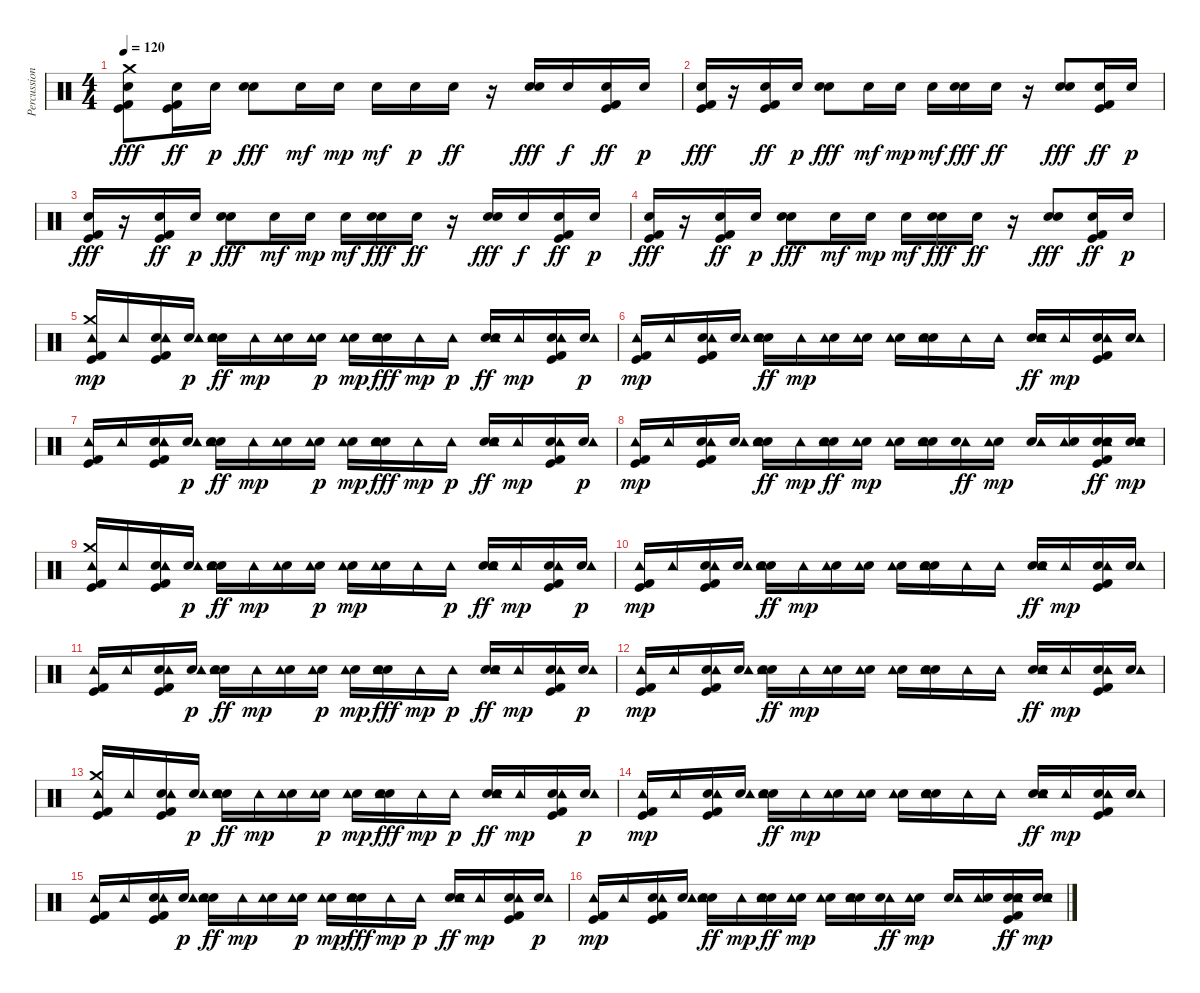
\track ("Percussions" "Percussion") {instrument percussion}
\staff {score}
\articulation defaults
\ts (4 4)
\tempo 120
\clef neutral
\ks c
("Kick (hit) 2" "Electric Snare (hit)" "Kick (hit)" "Crash medium (hit)").8{dy fff} ("Kick (hit) 2" "Electric Snare (hit)" "Kick (hit)").16{dy ff} "Electric Snare (hit)".16{dy p} ("Snare (hit) 2" "Electric Snare (hit)").8{dy fff} "Electric Snare (hit)".16{dy mf} "Electric Snare (hit)".16{dy mp} "Electric Snare (hit)".16{dy mf} "Electric Snare (hit)".16{dy p} "Electric Snare (hit)".16{dy ff} r.16 ("Snare (hit) 2" "Electric Snare (hit)").16{dy fff} "Electric Snare (hit)".16{dy f} ("Kick (hit)" "Electric Snare (hit)" "Kick (hit) 2").16{dy ff} "Electric Snare (hit)".16{dy p} |
("Electric Snare (hit)" "Kick (hit) 2" "Kick (hit)").16{dy fff} r.16 ("Electric Snare (hit)" "Kick (hit) 2" "Kick (hit)").16{dy ff} "Electric Snare (hit)".16{dy p} ("Snare (hit) 2" "Electric Snare (hit)").8{dy fff} "Electric Snare (hit)".16{dy mf} "Electric Snare (hit)".16{dy mp} "Electric Snare (hit)".16{dy mf} ("Electric Snare (hit)" "Snare (hit) 2").16{dy fff} "Electric Snare (hit)".16{dy ff} r.16 ("Electric Snare (hit)" "Snare (hit) 2").8{dy fff} ("Electric Snare (hit)" "Kick (hit) 2" "Kick (hit)").16{dy ff} "Electric Snare (hit)".16{dy p} |
("Electric Snare (hit)" "Kick (hit) 2" "Kick (hit)").16{dy fff} r.16 ("Electric Snare (hit)" "Kick (hit) 2" "Kick (hit)").16{dy ff} "Electric Snare (hit)".16{dy p} ("Snare (hit) 2" "Electric Snare (hit)").8{dy fff} "Electric Snare (hit)".16{dy mf} "Electric Snare (hit)".16{dy mp} "Electric Snare (hit)".16{dy mf} ("Electric Snare (hit)" "Snare (hit) 2").16{dy fff} "Electric Snare (hit)".16{dy ff} r.16 ("Snare (hit) 2" "Electric Snare (hit)").16{dy fff} "Electric Snare (hit)".16{dy f} ("Kick (hit) 2" "Electric Snare (hit)" "Kick (hit)").16{dy ff} "Electric Snare (hit)".16{dy p} |
("Electric Snare (hit)" "Kick (hit) 2" "Kick (hit)").16{dy fff} r.16 ("Kick (hit) 2" "Electric Snare (hit)" "Kick (hit)").16{dy ff} "Electric Snare (hit)".16{dy p} ("Snare (hit) 2" "Electric Snare (hit)").8{dy fff} "Electric Snare (hit)".16{dy mf} "Electric Snare (hit)".16{dy mp} "Electric Snare (hit)".16{dy mf} ("Electric Snare (hit)" "Snare (hit) 2").16{dy fff} "Electric Snare (hit)".16{dy ff} r.16 ("Electric Snare (hit)" "Snare (hit) 2").8{dy fff} ("Electric Snare (hit)" "Kick (hit) 2" "Kick (hit)").16{dy ff} "Electric Snare (hit)".16{dy p} |
("Kick (hit) 2" "Kick (hit)" "Crash medium (hit)" "Tambourine (hit)").16{dy mp} "Tambourine (hit)".16 ("Electric Snare (hit)" "Kick (hit) 2" "Kick (hit)" "Tambourine (hit)").16 ("Electric Snare (hit)" "Tambourine (hit)").16{dy p} ("Snare (hit) 2" "Tambourine (hit)" "Electric Snare (hit)").16{dy ff} "Tambourine (hit)".16{dy mp} ("Electric Snare (hit)" "Tambourine (hit)").16 ("Electric Snare (hit)" "Tambourine (hit)").16{dy p} ("Electric Snare (hit)" "Tambourine (hit)").16{dy mp} ("Electric Snare (hit)" "Tambourine (hit)" "Snare (hit) 2").16{dy fff} "Tambourine (hit)".16{dy mp} "Tambourine (hit)".16{dy p} ("Snare (hit) 2" "Tambourine (hit)" "Electric Snare (hit)").16{dy ff} "Tambourine (hit)".16{dy mp} ("Electric Snare (hit)" "Kick (hit) 2" "Kick (hit)" "Tambourine (hit)").16 ("Electric Snare (hit)" "Tambourine (hit)").16{dy p} |
("Kick (hit) 2" "Kick (hit)" "Tambourine (hit)").16{dy mp} "Tambourine (hit)".16 ("Electric Snare (hit)" "Kick (hit) 2" "Kick (hit)" "Tambourine (hit)").16 ("Electric Snare (hit)" "Tambourine (hit)").16 ("Snare (hit) 2" "Tambourine (hit)" "Electric Snare (hit)").16{dy ff} "Tambourine (hit)".16{dy mp} ("Electric Snare (hit)" "Tambourine (hit)").16 ("Electric Snare (hit)" "Tambourine (hit)").16 ("Electric Snare (hit)" "Tambourine (hit)").16 ("Electric Snare (hit)" "Snare (hit) 2" "Tambourine (hit)").16 "Tambourine (hit)".16 "Tambourine (hit)".16 ("Snare (hit) 2" "Tambourine (hit)" "Electric Snare (hit)").16{dy ff} "Tambourine (hit)".16{dy mp} ("Electric Snare (hit)" "Kick (hit) 2" "Kick (hit)" "Tambourine (hit)").16 ("Electric Snare (hit)" "Tambourine (hit)").16 |
("Kick (hit) 2" "Kick (hit)" "Tambourine (hit)").16 "Tambourine (hit)".16 ("Electric Snare (hit)" "Kick (hit) 2" "Kick (hit)" "Tambourine (hit)").16 ("Electric Snare (hit)" "Tambourine (hit)").16{dy p} ("Snare (hit) 2" "Tambourine (hit)" "Electric Snare (hit)").16{dy ff} "Tambourine (hit)".16{dy mp} ("Electric Snare (hit)" "Tambourine (hit)").16 ("Electric Snare (hit)" "Tambourine (hit)").16{dy p} ("Electric Snare (hit)" "Tambourine (hit)").16{dy mp} ("Electric Snare (hit)" "Tambourine (hit)" "Snare (hit) 2").16{dy fff} "Tambourine (hit)".16{dy mp} "Tambourine (hit)".16{dy p} ("Snare (hit) 2" "Tambourine (hit)" "Electric Snare (hit)").16{dy ff} "Tambourine (hit)".16{dy mp} ("Electric Snare (hit)" "Kick (hit) 2" "Kick (hit)" "Tambourine (hit)").16 ("Electric Snare (hit)" "Tambourine (hit)").16{dy p} |
("Kick (hit) 2" "Kick (hit)" "Tambourine (hit)").16{dy mp} "Tambourine (hit)".16 ("Electric Snare (hit)" "Kick (hit) 2" "Kick (hit)" "Tambourine (hit)").16 ("Electric Snare (hit)" "Tambourine (hit)").16 ("Snare (hit) 2" "Tambourine (hit)" "Electric Snare (hit)").16{dy ff} "Tambourine (hit)".16{dy mp} ("Electric Snare (hit)" "Tambourine (hit)" "Snare (hit) 2").16{dy ff} ("Electric Snare (hit)" "Tambourine (hit)").16{dy mp} ("Electric Snare (hit)" "Tambourine (hit)").16 ("Electric Snare (hit)" "Snare (hit) 2" "Tambourine (hit)").16 ("Tambourine (hit)" "Snare (hit) 2").16{dy ff} ("Snare (hit) 2" "Tambourine (hit)").16{dy mp} ("Snare (hit) 2" "Tambourine (hit)").16 ("Tambourine (hit)" "Snare (hit) 2").16 ("Electric Snare (hit)" "Kick (hit) 2" "Kick (hit)" "Tambourine (hit)" "Snare (hit) 2").16{dy ff} ("Snare (hit) 2" "Electric Snare (hit)" "Tambourine (hit)").16{dy mp} |
("Kick (hit) 2" "Kick (hit)" "Crash medium (hit)" "Tambourine (hit)").16 "Tambourine (hit)".16 ("Electric Snare (hit)" "Kick (hit) 2" "Kick (hit)" "Tambourine (hit)").16 ("Electric Snare (hit)" "Tambourine (hit)").16{dy p} ("Snare (hit) 2" "Tambourine (hit)" "Electric Snare (hit)").16{dy ff} "Tambourine (hit)".16{dy mp} ("Electric Snare (hit)" "Tambourine (hit)").16 ("Electric Snare (hit)" "Tambourine (hit)").16{dy p} ("Electric Snare (hit)" "Tambourine (hit)").16{dy mp} ("Electric Snare (hit)" "Tambourine (hit)").16 "Tambourine (hit)".16 "Tambourine (hit)".16{dy p} ("Snare (hit) 2" "Tambourine (hit)" "Electric Snare (hit)").16{dy ff} "Tambourine (hit)".16{dy mp} ("Electric Snare (hit)" "Kick (hit) 2" "Kick (hit)" "Tambourine (hit)").16 ("Electric Snare (hit)" "Tambourine (hit)").16{dy p} |
("Kick (hit) 2" "Kick (hit)" "Tambourine (hit)").16{dy mp} "Tambourine (hit)".16 ("Electric Snare (hit)" "Kick (hit) 2" "Kick (hit)" "Tambourine (hit)").16 ("Electric Snare (hit)" "Tambourine (hit)").16 ("Snare (hit) 2" "Tambourine (hit)" "Electric Snare (hit)").16{dy ff} "Tambourine (hit)".16{dy mp} ("Electric Snare (hit)" "Tambourine (hit)").16 ("Electric Snare (hit)" "Tambourine (hit)").16 ("Electric Snare (hit)" "Tambourine (hit)").16 ("Electric Snare (hit)" "Snare (hit) 2" "Tambourine (hit)").16 "Tambourine (hit)".16 "Tambourine (hit)".16 ("Snare (hit) 2" "Tambourine (hit)" "Electric Snare (hit)").16{dy ff} "Tambourine (hit)".16{dy mp} ("Electric Snare (hit)" "Kick (hit) 2" "Kick (hit)" "Tambourine (hit)").16 ("Electric Snare (hit)" "Tambourine (hit)").16 |
("Kick (hit) 2" "Kick (hit)" "Tambourine (hit)").16 "Tambourine (hit)".16 ("Electric Snare (hit)" "Kick (hit) 2" "Kick (hit)" "Tambourine (hit)").16 ("Electric Snare (hit)" "Tambourine (hit)").16{dy p} ("Snare (hit) 2" "Tambourine (hit)" "Electric Snare (hit)").16{dy ff} "Tambourine (hit)".16{dy mp} ("Electric Snare (hit)" "Tambourine (hit)").16 ("Electric Snare (hit)" "Tambourine (hit)").16{dy p} ("Electric Snare (hit)" "Tambourine (hit)").16{dy mp} ("Electric Snare (hit)" "Tambourine (hit)" "Snare (hit) 2").16{dy fff} "Tambourine (hit)".16{dy mp} "Tambourine (hit)".16{dy p} ("Snare (hit) 2" "Tambourine (hit)" "Electric Snare (hit)").16{dy ff} "Tambourine (hit)".16{dy mp} ("Electric Snare (hit)" "Kick (hit) 2" "Kick (hit)" "Tambourine (hit)").16 ("Electric Snare (hit)" "Tambourine (hit)").16{dy p} |
("Kick (hit) 2" "Kick (hit)" "Tambourine (hit)").16{dy mp} "Tambourine (hit)".16 ("Electric Snare (hit)" "Kick (hit) 2" "Kick (hit)" "Tambourine (hit)").16 ("Electric Snare (hit)" "Tambourine (hit)").16 ("Snare (hit) 2" "Tambourine (hit)" "Electric Snare (hit)").16{dy ff} "Tambourine (hit)".16{dy mp} ("Electric Snare (hit)" "Tambourine (hit)").16 ("Electric Snare (hit)" "Tambourine (hit)").16 ("Electric Snare (hit)" "Tambourine (hit)").16 ("Electric Snare (hit)" "Snare (hit) 2" "Tambourine (hit)").16 "Tambourine (hit)".16 "Tambourine (hit)".16 ("Snare (hit) 2" "Tambourine (hit)" "Electric Snare (hit)").16{dy ff} "Tambourine (hit)".16{dy mp} ("Electric Snare (hit)" "Kick (hit) 2" "Kick (hit)" "Tambourine (hit)").16 ("Electric Snare (hit)" "Tambourine (hit)").16 |
("Kick (hit) 2" "Kick (hit)" "Crash medium (hit)" "Tambourine (hit)").16 "Tambourine (hit)".16 ("Electric Snare (hit)" "Kick (hit) 2" "Kick (hit)" "Tambourine (hit)").16 ("Electric Snare (hit)" "Tambourine (hit)").16{dy p} ("Snare (hit) 2" "Tambourine (hit)" "Electric Snare (hit)").16{dy ff} "Tambourine (hit)".16{dy mp} ("Electric Snare (hit)" "Tambourine (hit)").16 ("Electric Snare (hit)" "Tambourine (hit)").16{dy p} ("Electric Snare (hit)" "Tambourine (hit)").16{dy mp} ("Electric Snare (hit)" "Tambourine (hit)" "Snare (hit) 2").16{dy fff} "Tambourine (hit)".16{dy mp} "Tambourine (hit)".16{dy p} ("Snare (hit) 2" "Tambourine (hit)" "Electric Snare (hit)").16{dy ff} "Tambourine (hit)".16{dy mp} ("Electric Snare (hit)" "Kick (hit) 2" "Kick (hit)" "Tambourine (hit)").16 ("Electric Snare (hit)" "Tambourine (hit)").16{dy p} |
("Kick (hit) 2" "Kick (hit)" "Tambourine (hit)").16{dy mp} "Tambourine (hit)".16 ("Electric Snare (hit)" "Kick (hit) 2" "Kick (hit)" "Tambourine (hit)").16 ("Electric Snare (hit)" "Tambourine (hit)").16 ("Snare (hit) 2" "Tambourine (hit)" "Electric Snare (hit)").16{dy ff} "Tambourine (hit)".16{dy mp} ("Electric Snare (hit)" "Tambourine (hit)").16 ("Electric Snare (hit)" "Tambourine (hit)").16 ("Electric Snare (hit)" "Tambourine (hit)").16 ("Electric Snare (hit)" "Snare (hit) 2" "Tambourine (hit)").16 "Tambourine (hit)".16 "Tambourine (hit)".16 ("Snare (hit) 2" "Tambourine (hit)" "Electric Snare (hit)").16{dy ff} "Tambourine (hit)".16{dy mp} ("Electric Snare (hit)" "Kick (hit) 2" "Kick (hit)" "Tambourine (hit)").16 ("Electric Snare (hit)" "Tambourine (hit)").16 |
("Kick (hit) 2" "Kick (hit)" "Tambourine (hit)").16 "Tambourine (hit)".16 ("Electric Snare (hit)" "Kick (hit) 2" "Kick (hit)" "Tambourine (hit)").16 ("Electric Snare (hit)" "Tambourine (hit)").16{dy p} ("Snare (hit) 2" "Tambourine (hit)" "Electric Snare (hit)").16{dy ff} "Tambourine (hit)".16{dy mp} ("Electric Snare (hit)" "Tambourine (hit)").16 ("Electric Snare (hit)" "Tambourine (hit)").16{dy p} ("Electric Snare (hit)" "Tambourine (hit)").16{dy mp} ("Electric Snare (hit)" "Tambourine (hit)" "Snare (hit) 2").16{dy fff} "Tambourine (hit)".16{dy mp} "Tambourine (hit)".16{dy p} ("Snare (hit) 2" "Tambourine (hit)" "Electric Snare (hit)").16{dy ff} "Tambourine (hit)".16{dy mp} ("Electric Snare (hit)" "Kick (hit) 2" "Kick (hit)" "Tambourine (hit)").16 ("Electric Snare (hit)" "Tambourine (hit)").16{dy p} |
("Kick (hit) 2" "Kick (hit)" "Tambourine (hit)").16{dy mp} "Tambourine (hit)".16 ("Electric Snare (hit)" "Kick (hit) 2" "Kick (hit)" "Tambourine (hit)").16 ("Electric Snare (hit)" "Tambourine (hit)").16 ("Snare (hit) 2" "Tambourine (hit)" "Electric Snare (hit)").16{dy ff} "Tambourine (hit)".16{dy mp} ("Electric Snare (hit)" "Tambourine (hit)" "Snare (hit) 2").16{dy ff} ("Electric Snare (hit)" "Tambourine (hit)").16{dy mp} ("Electric Snare (hit)" "Tambourine (hit)").16 ("Electric Snare (hit)" "Snare (hit) 2" "Tambourine (hit)").16 ("Tambourine (hit)" "Snare (hit) 2").16{dy ff} ("Snare (hit) 2" "Tambourine (hit)").16{dy mp} ("Snare (hit) 2" "Tambourine (hit)").16 ("Tambourine (hit)" "Snare (hit) 2").16 ("Electric Snare (hit)" "Kick (hit) 2" "Kick (hit)" "Tambourine (hit)" "Snare (hit) 2").16{dy ff} ("Snare (hit) 2" "Electric Snare (hit)" "Tambourine (hit)").16{dy mp}
